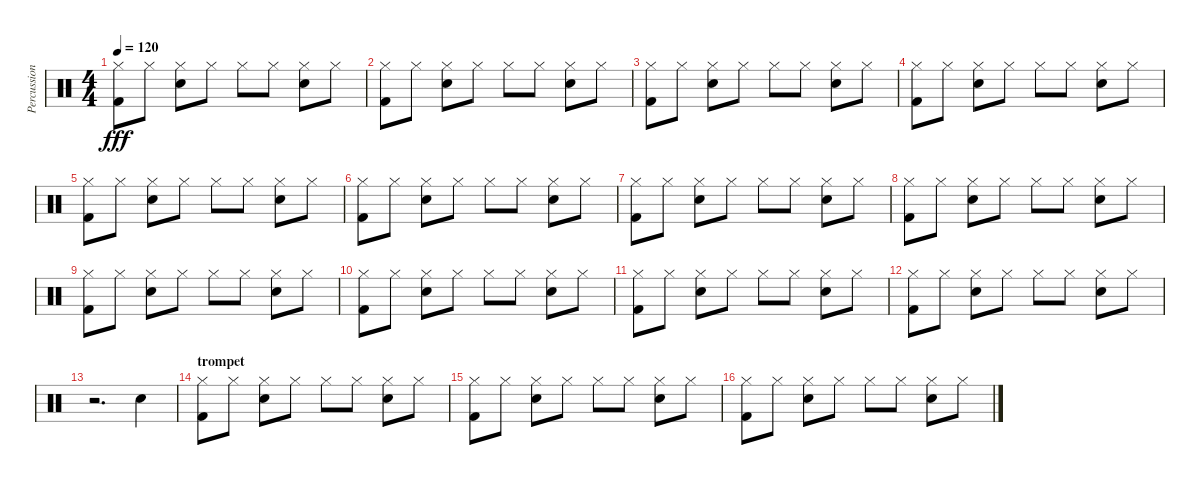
\track ("Percussions" "Percussion") {instrument percussion}
\staff {score}
\articulation defaults
\ts (4 4)
\tempo 120
\clef neutral
\ks c
("Hi-Hat (closed)" "Kick (hit) 2").8{dy fff} "Hi-Hat (closed)".8 ("Hi-Hat (closed)" "Electric Snare (hit)").8 "Hi-Hat (closed)".8 "Hi-Hat (closed)".8 "Hi-Hat (closed)".8 ("Hi-Hat (closed)" "Electric Snare (hit)").8 "Hi-Hat (closed)".8 |
("Hi-Hat (closed)" "Kick (hit) 2").8 "Hi-Hat (closed)".8 ("Hi-Hat (closed)" "Electric Snare (hit)").8 "Hi-Hat (closed)".8 "Hi-Hat (closed)".8 "Hi-Hat (closed)".8 ("Hi-Hat (closed)" "Electric Snare (hit)").8 "Hi-Hat (closed)".8 |
("Hi-Hat (closed)" "Kick (hit) 2").8 "Hi-Hat (closed)".8 ("Hi-Hat (closed)" "Electric Snare (hit)").8 "Hi-Hat (closed)".8 "Hi-Hat (closed)".8 "Hi-Hat (closed)".8 ("Hi-Hat (closed)" "Electric Snare (hit)").8 "Hi-Hat (closed)".8 |
("Hi-Hat (closed)" "Kick (hit) 2").8 "Hi-Hat (closed)".8 ("Hi-Hat (closed)" "Electric Snare (hit)").8 "Hi-Hat (closed)".8 "Hi-Hat (closed)".8 "Hi-Hat (closed)".8 ("Hi-Hat (closed)" "Electric Snare (hit)").8 "Hi-Hat (closed)".8 |
("Hi-Hat (closed)" "Kick (hit) 2").8 "Hi-Hat (closed)".8 ("Hi-Hat (closed)" "Electric Snare (hit)").8 "Hi-Hat (closed)".8 "Hi-Hat (closed)".8 "Hi-Hat (closed)".8 ("Hi-Hat (closed)" "Electric Snare (hit)").8 "Hi-Hat (closed)".8 |
("Hi-Hat (closed)" "Kick (hit) 2").8 "Hi-Hat (closed)".8 ("Hi-Hat (closed)" "Electric Snare (hit)").8 "Hi-Hat (closed)".8 "Hi-Hat (closed)".8 "Hi-Hat (closed)".8 ("Hi-Hat (closed)" "Electric Snare (hit)").8 "Hi-Hat (closed)".8 |
("Hi-Hat (closed)" "Kick (hit) 2").8 "Hi-Hat (closed)".8 ("Hi-Hat (closed)" "Electric Snare (hit)").8 "Hi-Hat (closed)".8 "Hi-Hat (closed)".8 "Hi-Hat (closed)".8 ("Hi-Hat (closed)" "Electric Snare (hit)").8 "Hi-Hat (closed)".8 |
("Hi-Hat (closed)" "Kick (hit) 2").8 "Hi-Hat (closed)".8 ("Hi-Hat (closed)" "Electric Snare (hit)").8 "Hi-Hat (closed)".8 "Hi-Hat (closed)".8 "Hi-Hat (closed)".8 ("Hi-Hat (closed)" "Electric Snare (hit)").8 "Hi-Hat (closed)".8 |
("Hi-Hat (closed)" "Kick (hit) 2").8 "Hi-Hat (closed)".8 ("Hi-Hat (closed)" "Electric Snare (hit)").8 "Hi-Hat (closed)".8 "Hi-Hat (closed)".8 "Hi-Hat (closed)".8 ("Hi-Hat (closed)" "Electric Snare (hit)").8 "Hi-Hat (closed)".8 |
("Hi-Hat (closed)" "Kick (hit) 2").8 "Hi-Hat (closed)".8 ("Hi-Hat (closed)" "Electric Snare (hit)").8 "Hi-Hat (closed)".8 "Hi-Hat (closed)".8 "Hi-Hat (closed)".8 ("Hi-Hat (closed)" "Electric Snare (hit)").8 "Hi-Hat (closed)".8 |
("Hi-Hat (closed)" "Kick (hit) 2").8 "Hi-Hat (closed)".8 ("Hi-Hat (closed)" "Electric Snare (hit)").8 "Hi-Hat (closed)".8 "Hi-Hat (closed)".8 "Hi-Hat (closed)".8 ("Hi-Hat (closed)" "Electric Snare (hit)").8 "Hi-Hat (closed)".8 |
("Hi-Hat (closed)" "Kick (hit) 2").8 "Hi-Hat (closed)".8 ("Hi-Hat (closed)" "Electric Snare (hit)").8 "Hi-Hat (closed)".8 "Hi-Hat (closed)".8 "Hi-Hat (closed)".8 ("Hi-Hat (closed)" "Electric Snare (hit)").8 "Hi-Hat (closed)".8 |
r.2{d} "Electric Snare (hit)".4 |
\section ("" "trompet")
("Hi-Hat (closed)" "Kick (hit) 2").8 "Hi-Hat (closed)".8 ("Hi-Hat (closed)" "Electric Snare (hit)").8 "Hi-Hat (closed)".8 "Hi-Hat (closed)".8 "Hi-Hat (closed)".8 ("Hi-Hat (closed)" "Electric Snare (hit)").8 "Hi-Hat (closed)".8 |
("Hi-Hat (closed)" "Kick (hit) 2").8 "Hi-Hat (closed)".8 ("Hi-Hat (closed)" "Electric Snare (hit)").8 "Hi-Hat (closed)".8 "Hi-Hat (closed)".8 "Hi-Hat (closed)".8 ("Hi-Hat (closed)" "Electric Snare (hit)").8 "Hi-Hat (closed)".8 |
("Hi-Hat (closed)" "Kick (hit) 2").8 "Hi-Hat (closed)".8 ("Hi-Hat (closed)" "Electric Snare (hit)").8 "Hi-Hat (closed)".8 "Hi-Hat (closed)".8 "Hi-Hat (closed)".8 ("Hi-Hat (closed)" "Electric Snare (hit)").8 "Hi-Hat (closed)".8
